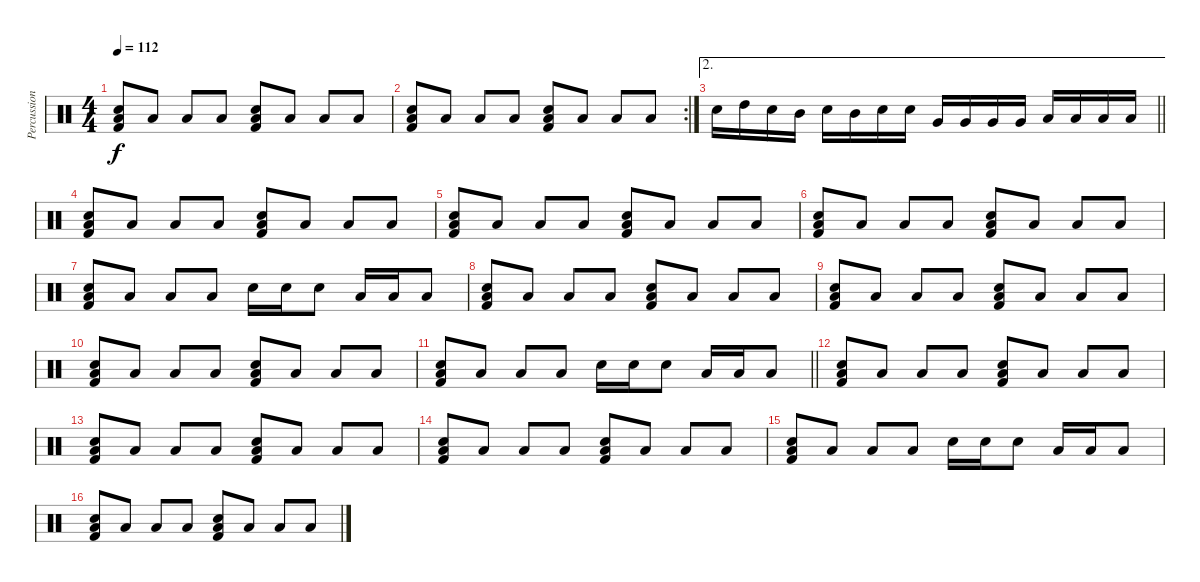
\track ("Percussion" "Percussion") {instrument percussion}
\staff {score}
\articulation defaults
\ts (4 4)
\tempo 112
\clef neutral
\ks c
("Snare (hit) 2" "Low Floor Tom (hit)" "Kick (hit) 2").8{dy f} "Low Floor Tom (hit)".8 "Low Floor Tom (hit)".8 "Low Floor Tom (hit)".8 ("Snare (hit) 2" "Low Floor Tom (hit)" "Kick (hit) 2").8 "Low Floor Tom (hit)".8 "Low Floor Tom (hit)".8 "Low Floor Tom (hit)".8 |
\rc 2
("Snare (hit) 2" "Low Floor Tom (hit)" "Kick (hit) 2").8 "Low Floor Tom (hit)".8 "Low Floor Tom (hit)".8 "Low Floor Tom (hit)".8 ("Snare (hit) 2" "Low Floor Tom (hit)" "Kick (hit) 2").8 "Low Floor Tom (hit)".8 "Low Floor Tom (hit)".8 "Low Floor Tom (hit)".8 |
\ae 2
\barLineRight lightlight "Snare (hit) 2".16 "High Tom (hit)".16 "Snare (hit) 2".16 "Mid Tom (hit)".16 "Snare (hit) 2".16 "Mid Tom (hit)".16 "Snare (hit) 2".16 "Snare (hit) 2".16 "Very Low Tom (hit)".16 "Very Low Tom (hit)".16 "Very Low Tom (hit)".16 "Very Low Tom (hit)".16 "Low Floor Tom (hit)".16 "Low Floor Tom (hit)".16 "Low Floor Tom (hit)".16 "Low Floor Tom (hit)".16
|
("Snare (hit) 2" "Low Floor Tom (hit)" "Kick (hit) 2").8 "Low Floor Tom (hit)".8 "Low Floor Tom (hit)".8 "Low Floor Tom (hit)".8 ("Snare (hit) 2" "Low Floor Tom (hit)" "Kick (hit) 2").8 "Low Floor Tom (hit)".8 "Low Floor Tom (hit)".8 "Low Floor Tom (hit)".8 |
("Snare (hit) 2" "Low Floor Tom (hit)" "Kick (hit) 2").8 "Low Floor Tom (hit)".8 "Low Floor Tom (hit)".8 "Low Floor Tom (hit)".8 ("Snare (hit) 2" "Low Floor Tom (hit)" "Kick (hit) 2").8 "Low Floor Tom (hit)".8 "Low Floor Tom (hit)".8 "Low Floor Tom (hit)".8 |
("Snare (hit) 2" "Low Floor Tom (hit)" "Kick (hit) 2").8 "Low Floor Tom (hit)".8 "Low Floor Tom (hit)".8 "Low Floor Tom (hit)".8 ("Snare (hit) 2" "Low Floor Tom (hit)" "Kick (hit) 2").8 "Low Floor Tom (hit)".8 "Low Floor Tom (hit)".8 "Low Floor Tom (hit)".8 |
("Snare (hit) 2" "Low Floor Tom (hit)" "Kick (hit) 2").8 "Low Floor Tom (hit)".8 "Low Floor Tom (hit)".8 "Low Floor Tom (hit)".8 "Snare (hit) 2".16 "Snare (hit) 2".16 "Snare (hit) 2".8 "Low Tom (hit)".16 "Low Tom (hit)".16 "Low Tom (hit)".8 |
("Snare (hit) 2" "Low Floor Tom (hit)" "Kick (hit) 2").8 "Low Floor Tom (hit)".8 "Low Floor Tom (hit)".8 "Low Floor Tom (hit)".8 ("Snare (hit) 2" "Low Floor Tom (hit)" "Kick (hit) 2").8 "Low Floor Tom (hit)".8 "Low Floor Tom (hit)".8 "Low Floor Tom (hit)".8 |
("Snare (hit) 2" "Low Floor Tom (hit)" "Kick (hit) 2").8 "Low Floor Tom (hit)".8 "Low Floor Tom (hit)".8 "Low Floor Tom (hit)".8 ("Snare (hit) 2" "Low Floor Tom (hit)" "Kick (hit) 2").8 "Low Floor Tom (hit)".8 "Low Floor Tom (hit)".8 "Low Floor Tom (hit)".8 |
("Snare (hit) 2" "Low Floor Tom (hit)" "Kick (hit) 2").8 "Low Floor Tom (hit)".8 "Low Floor Tom (hit)".8 "Low Floor Tom (hit)".8 ("Snare (hit) 2" "Low Floor Tom (hit)" "Kick (hit) 2").8 "Low Floor Tom (hit)".8 "Low Floor Tom (hit)".8 "Low Floor Tom (hit)".8 |
\barLineRight lightlight
("Snare (hit) 2" "Low Floor Tom (hit)" "Kick (hit) 2").8 "Low Floor Tom (hit)".8 "Low Floor Tom (hit)".8 "Low Floor Tom (hit)".8 "Snare (hit) 2".16 "Snare (hit) 2".16 "Snare (hit) 2".8 "Low Tom (hit)".16 "Low Tom (hit)".16 "Low Tom (hit)".8 |
("Snare (hit) 2" "Low Floor Tom (hit)" "Kick (hit) 2").8 "Low Floor Tom (hit)".8 "Low Floor Tom (hit)".8 "Low Floor Tom (hit)".8 ("Snare (hit) 2" "Low Floor Tom (hit)" "Kick (hit) 2").8 "Low Floor Tom (hit)".8 "Low Floor Tom (hit)".8 "Low Floor Tom (hit)".8 |
("Snare (hit) 2" "Low Floor Tom (hit)" "Kick (hit) 2").8 "Low Floor Tom (hit)".8 "Low Floor Tom (hit)".8 "Low Floor Tom (hit)".8 ("Snare (hit) 2" "Low Floor Tom (hit)" "Kick (hit) 2").8 "Low Floor Tom (hit)".8 "Low Floor Tom (hit)".8 "Low Floor Tom (hit)".8 |
("Snare (hit) 2" "Low Floor Tom (hit)" "Kick (hit) 2").8 "Low Floor Tom (hit)".8 "Low Floor Tom (hit)".8 "Low Floor Tom (hit)".8 ("Snare (hit) 2" "Low Floor Tom (hit)" "Kick (hit) 2").8 "Low Floor Tom (hit)".8 "Low Floor Tom (hit)".8 "Low Floor Tom (hit)".8 |
("Snare (hit) 2" "Low Floor Tom (hit)" "Kick (hit) 2").8 "Low Floor Tom (hit)".8 "Low Floor Tom (hit)".8 "Low Floor Tom (hit)".8 "Snare (hit) 2".16 "Snare (hit) 2".16 "Snare (hit) 2".8 "Low Tom (hit)".16 "Low Tom (hit)".16 "Low Tom (hit)".8 |
("Snare (hit) 2" "Low Floor Tom (hit)" "Kick (hit) 2").8 "Low Floor Tom (hit)".8 "Low Floor Tom (hit)".8 "Low Floor Tom (hit)".8 ("Snare (hit) 2" "Low Floor Tom (hit)" "Kick (hit) 2").8 "Low Floor Tom (hit)".8 "Low Floor Tom (hit)".8 "Low Floor Tom (hit)".8
